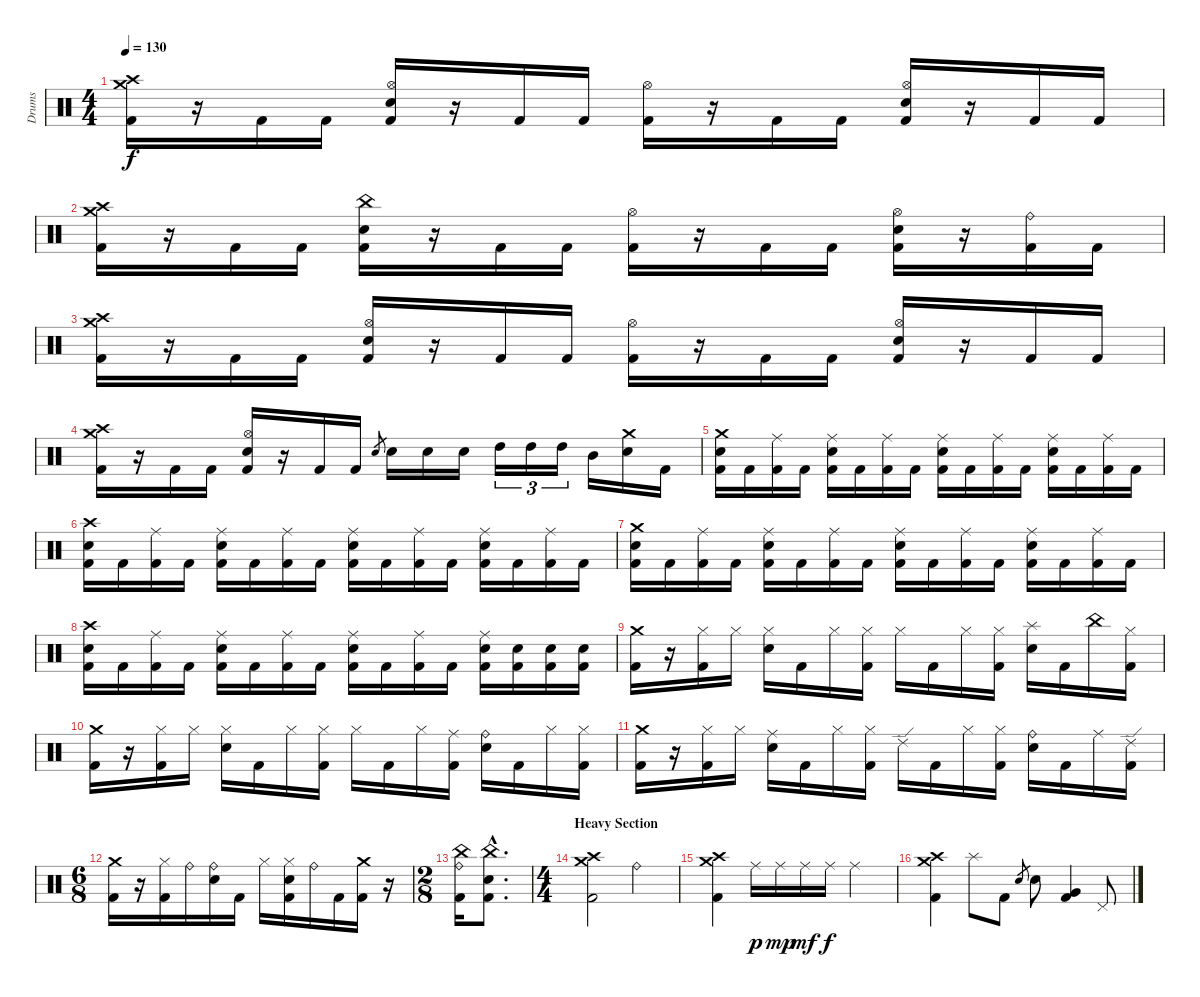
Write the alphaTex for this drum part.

\track ("Drums" "Drums") {instrument percussion}
\staff {score}
\articulation defaults
\ts (4 4)
\tempo 130
\clef neutral
\ks c
("Crash medium (hit)" "Crash high (hit)" "Kick (hit) 2").16{dy f} r.16 "Kick (hit) 2".16 "Kick (hit) 2".16 ("Hi-Hat (open)" "Electric Snare (hit)" "Kick (hit) 2").16 r.16 "Kick (hit) 2".16 "Kick (hit) 2".16 ("Hi-Hat (open)" "Kick (hit) 2").16 r.16 "Kick (hit) 2".16 "Kick (hit) 2".16 ("Hi-Hat (open)" "Electric Snare (hit)" "Kick (hit) 2").16 r.16 "Kick (hit) 2".16 "Kick (hit) 2".16 |
("Crash medium (hit)" "Crash high (hit)" "Kick (hit) 2").16 r.16 "Kick (hit) 2".16 "Kick (hit) 2".16 ("China (hit)" "Electric Snare (hit)" "Kick (hit) 2").16 r.16 "Kick (hit) 2".16 "Kick (hit) 2".16 ("Hi-Hat (open)" "Kick (hit) 2").16 r.16 "Kick (hit) 2".16 "Kick (hit) 2".16 ("Hi-Hat (open)" "Electric Snare (hit)" "Kick (hit) 2").16 r.16 ("Ride (bell)" "Kick (hit) 2").16 "Kick (hit) 2".16 |
("Crash medium (hit)" "Crash high (hit)" "Kick (hit) 2").16 r.16 "Kick (hit) 2".16 "Kick (hit) 2".16 ("Hi-Hat (open)" "Electric Snare (hit)" "Kick (hit) 2").16 r.16 "Kick (hit) 2".16 "Kick (hit) 2".16 ("Hi-Hat (open)" "Kick (hit) 2").16 r.16 "Kick (hit) 2".16 "Kick (hit) 2".16 ("Hi-Hat (open)" "Electric Snare (hit)" "Kick (hit) 2").16 r.16 "Kick (hit) 2".16 "Kick (hit) 2".16 |
("Crash medium (hit)" "Crash high (hit)" "Kick (hit) 2").16 r.16 "Kick (hit) 2".16 "Kick (hit) 2".16 ("Hi-Hat (open)" "Electric Snare (hit)" "Kick (hit) 2").16 r.16 "Kick (hit) 2".16 "Kick (hit) 2".16 "Electric Snare (hit)".8{gr} "Electric Snare (hit)".16 "Electric Snare (hit)".16 "Electric Snare (hit)".16 "High Tom (hit)".16{tu (3 2)} "High Tom (hit)".16{tu (3 2)} "High Tom (hit)".16{tu (3 2)} "Mid Tom (hit)".16 ("Crash medium (hit)" "Electric Snare (hit)").16 "Kick (hit) 2".16 |
("Crash medium (hit)" "Electric Snare (hit)" "Kick (hit) 2").16 "Kick (hit) 2".16 ("Ride (middle)" "Kick (hit) 2").16 "Kick (hit) 2".16 ("Ride (middle)" "Electric Snare (hit)" "Kick (hit) 2").16 "Kick (hit) 2".16 ("Ride (middle)" "Kick (hit) 2").16 "Kick (hit) 2".16 ("Ride (middle)" "Electric Snare (hit)" "Kick (hit) 2").16 "Kick (hit) 2".16 ("Ride (middle)" "Kick (hit) 2").16 "Kick (hit) 2".16 ("Ride (middle)" "Electric Snare (hit)" "Kick (hit) 2").16 "Kick (hit) 2".16 ("Ride (middle)" "Kick (hit) 2").16 "Kick (hit) 2".16 |
("Crash high (hit)" "Electric Snare (hit)" "Kick (hit) 2").16 "Kick (hit) 2".16 ("Ride (middle)" "Kick (hit) 2").16 "Kick (hit) 2".16 ("Ride (middle)" "Electric Snare (hit)" "Kick (hit) 2").16 "Kick (hit) 2".16 ("Ride (middle)" "Kick (hit) 2").16 "Kick (hit) 2".16 ("Ride (middle)" "Electric Snare (hit)" "Kick (hit) 2").16 "Kick (hit) 2".16 ("Ride (middle)" "Kick (hit) 2").16 "Kick (hit) 2".16 ("Ride (middle)" "Electric Snare (hit)" "Kick (hit) 2").16 "Kick (hit) 2".16 ("Ride (middle)" "Kick (hit) 2").16 "Kick (hit) 2".16 |
("Crash medium (hit)" "Electric Snare (hit)" "Kick (hit) 2").16 "Kick (hit) 2".16 ("Ride (middle)" "Kick (hit) 2").16 "Kick (hit) 2".16 ("Ride (middle)" "Electric Snare (hit)" "Kick (hit) 2").16 "Kick (hit) 2".16 ("Ride (middle)" "Kick (hit) 2").16 "Kick (hit) 2".16 ("Ride (middle)" "Electric Snare (hit)" "Kick (hit) 2").16 "Kick (hit) 2".16 ("Ride (middle)" "Kick (hit) 2").16 "Kick (hit) 2".16 ("Ride (middle)" "Electric Snare (hit)" "Kick (hit) 2").16 "Kick (hit) 2".16 ("Ride (middle)" "Kick (hit) 2").16 "Kick (hit) 2".16 |
("Crash high (hit)" "Electric Snare (hit)" "Kick (hit) 2").16 "Kick (hit) 2".16 ("Ride (middle)" "Kick (hit) 2").16 "Kick (hit) 2".16 ("Ride (middle)" "Electric Snare (hit)" "Kick (hit) 2").16 "Kick (hit) 2".16 ("Ride (middle)" "Kick (hit) 2").16 "Kick (hit) 2".16 ("Ride (middle)" "Electric Snare (hit)" "Kick (hit) 2").16 "Kick (hit) 2".16 ("Ride (middle)" "Kick (hit) 2").16 "Kick (hit) 2".16 ("Ride (middle)" "Electric Snare (hit)" "Kick (hit) 2").16 ("Electric Snare (hit)" "Kick (hit) 2").16 ("Electric Snare (hit)" "Kick (hit) 2").16 ("Electric Snare (hit)" "Kick (hit) 2").16 |
("Crash medium (hit)" "Kick (hit) 2").16 r.16 ("Hi-Hat (closed)" "Kick (hit) 2").16 "Hi-Hat (closed)".16 ("Hi-Hat (closed)" "Electric Snare (hit)").16 "Kick (hit) 2".16 "Hi-Hat (closed)".16 ("Hi-Hat (closed)" "Kick (hit) 2").16 "Hi-Hat (closed)".16 "Kick (hit) 2".16 "Hi-Hat (closed)".16 ("Hi-Hat (closed)" "Kick (hit) 2").16 ("Splash (hit)" "Electric Snare (hit)").16 "Kick (hit) 2".16 "China (hit)".16 ("Hi-Hat (closed)" "Kick (hit) 2").16 |
("Crash medium (hit)" "Kick (hit) 2").16 r.16 ("Hi-Hat (closed)" "Kick (hit) 2").16 "Hi-Hat (closed)".16 ("Hi-Hat (closed)" "Electric Snare (hit)").16 "Kick (hit) 2".16 "Hi-Hat (closed)".16 ("Hi-Hat (closed)" "Kick (hit) 2").16 "Hi-Hat (closed)".16 "Kick (hit) 2".16 "Hi-Hat (closed)".16 ("Ride (middle)" "Kick (hit) 2").16 ("Ride (bell)" "Electric Snare (hit)").16 "Kick (hit) 2".16 "Hi-Hat (closed)".16 ("Hi-Hat (closed)" "Kick (hit) 2").16 |
("Crash medium (hit)" "Kick (hit) 2").16 r.16 ("Hi-Hat (closed)" "Kick (hit) 2").16 "Hi-Hat (closed)".16 ("Ride (middle)" "Electric Snare (hit)").16 "Kick (hit) 2".16 "Hi-Hat (closed)".16 ("Hi-Hat (closed)" "Kick (hit) 2").16 "Ride (edge) 2".16 "Kick (hit) 2".16 "Hi-Hat (closed)".16 ("Hi-Hat (closed)" "Kick (hit) 2").16 ("Ride (bell)" "Electric Snare (hit)").16 "Kick (hit) 2".16 "Ride (middle)".16 ("Ride (edge) 2" "Kick (hit) 2").16 |
\ts (6 8)
("Crash medium (hit)" "Kick (hit) 2").16 r.16 ("Hi-Hat (closed)" "Kick (hit) 2").16 "Ride (bell)".16 ("Ride (bell)" "Electric Snare (hit)").16 "Kick (hit) 2".16 "Hi-Hat (closed)".16 ("Hi-Hat (closed)" "Electric Snare (hit)" "Kick (hit) 2").16 "Ride (bell)".16 "Kick (hit) 2".16 ("Crash medium (hit)" "Kick (hit) 2").16 r.16 |
\ts (2 8)
("China (hit)" "Ride (bell)" "Kick (hit) 2").16 ("China (hit)"{hac} "Electric Snare (hit)"{hac} "Kick (hit) 2"{hac}).8{d} |
\ts (4 4)
\section ("" "Heavy Section")
("Crash medium (hit)" "Crash high (hit)" "Kick (hit) 2").2 "Ride (bell)".2 |
("Crash medium (hit)" "Crash high (hit)" "Kick (hit) 2").4 "Ride (middle)".16{dy p} "Ride (middle)".16{dy mp} "Ride (middle)".16{dy mf} "Ride (middle)".16{dy f} "Ride (middle)".2 |
("Crash medium (hit)" "Crash high (hit)" "Kick (hit) 2").4 "Splash (hit)".8 "Kick (hit) 2".8 "Electric Snare (hit)".8{gr} "Electric Snare (hit)".8 ("Very Low Tom (hit)" "Kick (hit) 2").4 "Pedal Hi-Hat (hit)".8
